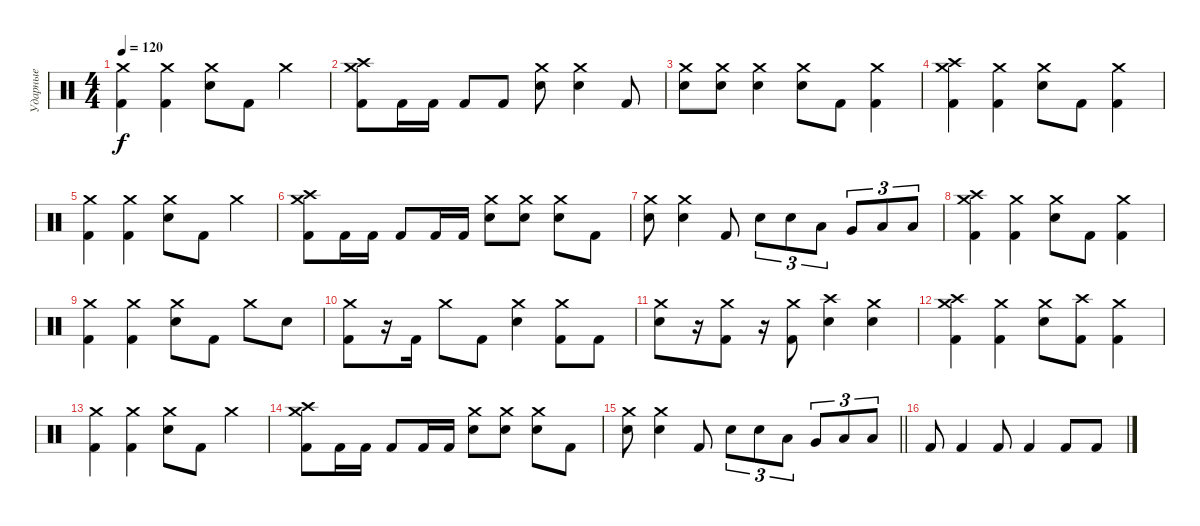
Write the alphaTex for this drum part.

\track ("Ударные" "Ударные") {instrument percussion}
\staff {score}
\articulation defaults
\ts (4 4)
\tempo 120
\clef neutral
\ks c
("Crash medium (hit)" "Kick (hit) 2").4{dy f} ("Crash medium (hit)" "Kick (hit) 2").4 ("Crash medium (hit)" "Snare (hit) 2").8 "Kick (hit) 2".8 "Crash medium (hit)".4 |
("Crash medium (hit)" "Crash high (hit)" "Kick (hit) 2").8 "Kick (hit) 2".16 "Kick (hit) 2".16 "Kick (hit) 2".8 "Kick (hit) 2".8 ("Crash medium (hit)" "Snare (hit) 2").8 ("Crash medium (hit)" "Snare (hit) 2").4 "Kick (hit) 2".8 |
("Crash medium (hit)" "Snare (hit) 2").8 ("Crash medium (hit)" "Snare (hit) 2").8 ("Crash medium (hit)" "Snare (hit) 2").4 ("Crash medium (hit)" "Snare (hit) 2").8 "Kick (hit) 2".8 ("Crash medium (hit)" "Kick (hit) 2").4 |
("Crash medium (hit)" "Crash high (hit)" "Kick (hit) 2").4 ("Crash medium (hit)" "Kick (hit) 2").4 ("Crash medium (hit)" "Snare (hit) 2").8 "Kick (hit) 2".8 ("Crash medium (hit)" "Kick (hit) 2").4 |
("Crash medium (hit)" "Kick (hit) 2").4 ("Crash medium (hit)" "Kick (hit) 2").4 ("Crash medium (hit)" "Snare (hit) 2").8 "Kick (hit) 2".8 "Crash medium (hit)".4 |
("Crash medium (hit)" "Crash high (hit)" "Kick (hit) 2").8 "Kick (hit) 2".16 "Kick (hit) 2".16 "Kick (hit) 2".8 "Kick (hit) 2".16 "Kick (hit) 2".16 ("Crash medium (hit)" "Snare (hit) 2").8 ("Crash medium (hit)" "Snare (hit) 2").8 ("Crash medium (hit)" "Snare (hit) 2").8 "Kick (hit) 2".8 |
("Crash medium (hit)" "Snare (hit) 2").8 ("Crash medium (hit)" "Snare (hit) 2").4 "Kick (hit) 2".8 "Snare (hit) 2".8{tu (3 2)} "Snare (hit) 2".8{tu (3 2)} "Low Tom (hit)".8{tu (3 2)} "Very Low Tom (hit)".8{tu (3 2)} "Low Floor Tom (hit)".8{tu (3 2)} "Low Tom (hit)".8{tu (3 2)} |
("Crash medium (hit)" "Crash high (hit)" "Kick (hit) 2").4 ("Crash medium (hit)" "Kick (hit) 2").4 ("Crash medium (hit)" "Snare (hit) 2").8 "Kick (hit) 2".8 ("Crash medium (hit)" "Kick (hit) 2").4 |
("Crash medium (hit)" "Kick (hit) 2").4 ("Crash medium (hit)" "Kick (hit) 2").4 ("Crash medium (hit)" "Snare (hit) 2").8 "Kick (hit) 2".8 "Crash medium (hit)".8 "Snare (hit) 2".8 |
("Crash medium (hit)" "Kick (hit) 2").8 r.16 "Kick (hit) 2".16 "Crash medium (hit)".8 "Kick (hit) 2".8 ("Crash medium (hit)" "Snare (hit) 2").4 ("Crash medium (hit)" "Kick (hit) 2").8 "Kick (hit) 2".8 |
("Crash medium (hit)" "Snare (hit) 2").8 r.16 ("Crash medium (hit)" "Kick (hit) 2").8 r.16 ("Crash medium (hit)" "Kick (hit) 2").8 ("Crash high (hit)" "Snare (hit) 2").4 ("Crash medium (hit)" "Snare (hit) 2").4 |
("Crash medium (hit)" "Crash high (hit)" "Kick (hit) 2").4 ("Crash medium (hit)" "Kick (hit) 2").4 ("Crash medium (hit)" "Snare (hit) 2").8 ("Crash high (hit)" "Kick (hit) 2").8 ("Crash medium (hit)" "Kick (hit) 2").4 |
("Crash medium (hit)" "Kick (hit) 2").4 ("Crash medium (hit)" "Kick (hit) 2").4 ("Crash medium (hit)" "Snare (hit) 2").8 "Kick (hit) 2".8 "Crash medium (hit)".4 |
("Crash medium (hit)" "Crash high (hit)" "Kick (hit) 2").8 "Kick (hit) 2".16 "Kick (hit) 2".16 "Kick (hit) 2".8 "Kick (hit) 2".16 "Kick (hit) 2".16 ("Crash medium (hit)" "Snare (hit) 2").8 ("Crash medium (hit)" "Snare (hit) 2").8 ("Crash medium (hit)" "Snare (hit) 2").8 "Kick (hit) 2".8 |
\barLineRight lightlight
("Crash medium (hit)" "Snare (hit) 2").8 ("Crash medium (hit)" "Snare (hit) 2").4 "Kick (hit) 2".8 "Snare (hit) 2".8{tu (3 2)} "Snare (hit) 2".8{tu (3 2)} "Low Tom (hit)".8{tu (3 2)} "Very Low Tom (hit)".8{tu (3 2)} "Low Floor Tom (hit)".8{tu (3 2)} "Low Tom (hit)".8{tu (3 2)} |
"Kick (hit) 2".8 "Kick (hit) 2".4 "Kick (hit) 2".8 "Kick (hit) 2".4 "Kick (hit) 2".8 "Kick (hit) 2".8
